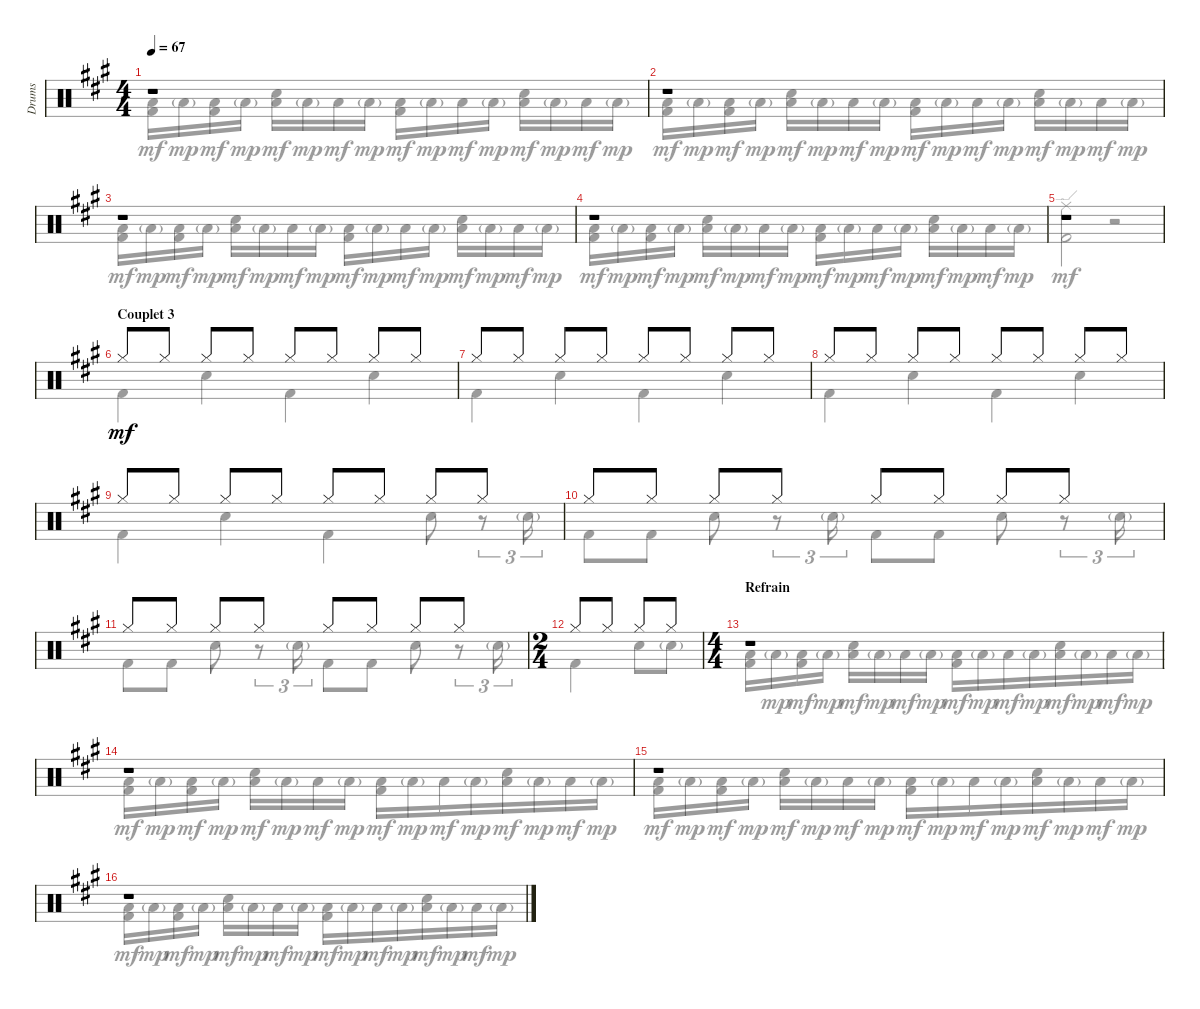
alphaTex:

\bracketExtendMode groupsimilarinstruments
\otherSystemsTrackNameOrientation horizontal
\track ("Drumkit" "Drums") {instrument percussion}
\staff {score}
\articulation defaults
\voice
\ts (4 4)
\tempo 67
\clef neutral
\scale
0.263889
\ks a
r.1{dy mf} |
\scale
0.263889 r.1 |
\scale
0.333333 r.1 |
\scale
0.333333 r.1 |
\scale
0.333333 r.1 |
\section ("" "Couplet 3")
\scale
0.333333 "Hi-Hat (closed)"{acc forcenatural}.8 "Hi-Hat (closed)"{acc forcenatural}.8 "Hi-Hat (closed)"{acc forcenatural}.8 "Hi-Hat (closed)"{acc forcenatural}.8 "Hi-Hat (closed)"{acc forcenatural}.8 "Hi-Hat (closed)"{acc forcenatural}.8 "Hi-Hat (closed)"{acc forcenatural}.8 "Hi-Hat (closed)"{acc forcenatural}.8 |
\scale
0.333333 "Hi-Hat (closed)"{acc forcenatural}.8 "Hi-Hat (closed)"{acc forcenatural}.8 "Hi-Hat (closed)"{acc forcenatural}.8 "Hi-Hat (closed)"{acc forcenatural}.8 "Hi-Hat (closed)"{acc forcenatural}.8 "Hi-Hat (closed)"{acc forcenatural}.8 "Hi-Hat (closed)"{acc forcenatural}.8 "Hi-Hat (closed)"{acc forcenatural}.8 |
\scale
0.333333 "Hi-Hat (closed)"{acc forcenatural}.8 "Hi-Hat (closed)"{acc forcenatural}.8 "Hi-Hat (closed)"{acc forcenatural}.8 "Hi-Hat (closed)"{acc forcenatural}.8 "Hi-Hat (closed)"{acc forcenatural}.8 "Hi-Hat (closed)"{acc forcenatural}.8 "Hi-Hat (closed)"{acc forcenatural}.8 "Hi-Hat (closed)"{acc forcenatural}.8 |
\scale
0.333333 "Hi-Hat (closed)"{acc forcenatural}.8 "Hi-Hat (closed)"{acc forcenatural}.8 "Hi-Hat (closed)"{acc forcenatural}.8 "Hi-Hat (closed)"{acc forcenatural}.8 "Hi-Hat (closed)"{acc forcenatural}.8 "Hi-Hat (closed)"{acc forcenatural}.8 "Hi-Hat (closed)"{acc forcenatural}.8 "Hi-Hat (closed)"{acc forcenatural}.8 |
\scale
0.333333 "Hi-Hat (closed)"{acc forcenatural}.8 "Hi-Hat (closed)"{acc forcenatural}.8 "Hi-Hat (closed)"{acc forcenatural}.8 "Hi-Hat (closed)"{acc forcenatural}.8 "Hi-Hat (closed)"{acc forcenatural}.8 "Hi-Hat (closed)"{acc forcenatural}.8 "Hi-Hat (closed)"{acc forcenatural}.8 "Hi-Hat (closed)"{acc forcenatural}.8 |
\scale
0.333333 "Hi-Hat (closed)"{acc forcenatural}.8 "Hi-Hat (closed)"{acc forcenatural}.8 "Hi-Hat (closed)"{acc forcenatural}.8 "Hi-Hat (closed)"{acc forcenatural}.8 "Hi-Hat (closed)"{acc forcenatural}.8 "Hi-Hat (closed)"{acc forcenatural}.8 "Hi-Hat (closed)"{acc forcenatural}.8 "Hi-Hat (closed)"{acc forcenatural}.8 |
\ts (2 4)
\beaming (8 2 2)
\scale
0.390805 "Hi-Hat (closed)"{acc forcenatural}.8 "Hi-Hat (closed)"{acc forcenatural}.8 "Hi-Hat (closed)"{acc forcenatural}.8 "Hi-Hat (closed)"{acc forcenatural}.8 |
\ts (4 4)
\beaming (8 2 2 4)
\section ("" "Refrain")
\scale
0.390805 r.1 |
\scale
0.218391 r.1 |
\scale
0.333333 r.1 |
\scale
0.333333 r.1
\voice
\clef neutral
\ottava regular
\simile none
\scale
0.263889
\ks a
("Kick (hit) 2"{acc forcenatural} "Low Tom (hit)"{acc forcenatural}).16{dy mf} "Low Tom (hit)"{g acc forcenatural}.16{dy mp} ("Kick (hit) 2"{acc forcenatural} "Low Tom (hit)"{acc forcenatural}).16{dy mf} "Low Tom (hit)"{g acc forcenatural}.16{dy mp} ("Low Tom (hit)"{acc forcenatural} "Snare (hit) 2"{acc forcenatural}).16{dy mf} "Low Tom (hit)"{g acc forcenatural}.16{dy mp} "Low Tom (hit)"{acc forcenatural}.16{dy mf} "Low Tom (hit)"{g acc forcenatural}.16{dy mp} ("Kick (hit) 2"{acc forcenatural} "Low Tom (hit)"{acc forcenatural}).16{dy mf} "Low Tom (hit)"{g acc forcenatural}.16{dy mp} "Low Tom (hit)"{acc forcenatural}.16{dy mf} "Low Tom (hit)"{g acc forcenatural}.16{dy mp} ("Low Tom (hit)"{acc forcenatural} "Snare (hit) 2"{acc forcenatural}).16{dy mf} "Low Tom (hit)"{g acc forcenatural}.16{dy mp} "Low Tom (hit)"{acc forcenatural}.16{dy mf} "Low Tom (hit)"{g acc forcenatural}.16{dy mp} |
\scale
0.263889 ("Kick (hit) 2"{acc forcenatural} "Low Tom (hit)"{acc forcenatural}).16{dy mf} "Low Tom (hit)"{g acc forcenatural}.16{dy mp} ("Kick (hit) 2"{acc forcenatural} "Low Tom (hit)"{acc forcenatural}).16{dy mf} "Low Tom (hit)"{g acc forcenatural}.16{dy mp} ("Low Tom (hit)"{acc forcenatural} "Snare (hit) 2"{acc forcenatural}).16{dy mf} "Low Tom (hit)"{g acc forcenatural}.16{dy mp} "Low Tom (hit)"{acc forcenatural}.16{dy mf} "Low Tom (hit)"{g acc forcenatural}.16{dy mp} ("Kick (hit) 2"{acc forcenatural} "Low Tom (hit)"{acc forcenatural}).16{dy mf} "Low Tom (hit)"{g acc forcenatural}.16{dy mp} "Low Tom (hit)"{acc forcenatural}.16{dy mf} "Low Tom (hit)"{g acc forcenatural}.16{dy mp} ("Low Tom (hit)"{acc forcenatural} "Snare (hit) 2"{acc forcenatural}).16{dy mf} "Low Tom (hit)"{g acc forcenatural}.16{dy mp} "Low Tom (hit)"{acc forcenatural}.16{dy mf} "Low Tom (hit)"{g acc forcenatural}.16{dy mp} |
\scale
0.333333 ("Kick (hit) 2"{acc forcenatural} "Low Tom (hit)"{acc forcenatural}).16{dy mf} "Low Tom (hit)"{g acc forcenatural}.16{dy mp} ("Kick (hit) 2"{acc forcenatural} "Low Tom (hit)"{acc forcenatural}).16{dy mf} "Low Tom (hit)"{g acc forcenatural}.16{dy mp} ("Low Tom (hit)"{acc forcenatural} "Snare (hit) 2"{acc forcenatural}).16{dy mf} "Low Tom (hit)"{g acc forcenatural}.16{dy mp} "Low Tom (hit)"{acc forcenatural}.16{dy mf} "Low Tom (hit)"{g acc forcenatural}.16{dy mp} ("Kick (hit) 2"{acc forcenatural} "Low Tom (hit)"{acc forcenatural}).16{dy mf} "Low Tom (hit)"{g acc forcenatural}.16{dy mp} "Low Tom (hit)"{acc forcenatural}.16{dy mf} "Low Tom (hit)"{g acc forcenatural}.16{dy mp} ("Low Tom (hit)"{acc forcenatural} "Snare (hit) 2"{acc forcenatural}).16{dy mf} "Low Tom (hit)"{g acc forcenatural}.16{dy mp} "Low Tom (hit)"{acc forcenatural}.16{dy mf} "Low Tom (hit)"{g acc forcenatural}.16{dy mp} |
\scale
0.333333 ("Kick (hit) 2"{acc forcenatural} "Low Tom (hit)"{acc forcenatural}).16{dy mf} "Low Tom (hit)"{g acc forcenatural}.16{dy mp} ("Kick (hit) 2"{acc forcenatural} "Low Tom (hit)"{acc forcenatural}).16{dy mf} "Low Tom (hit)"{g acc forcenatural}.16{dy mp} ("Low Tom (hit)"{acc forcenatural} "Snare (hit) 2"{acc forcenatural}).16{dy mf} "Low Tom (hit)"{g acc forcenatural}.16{dy mp} "Low Tom (hit)"{acc forcenatural}.16{dy mf} "Low Tom (hit)"{g acc forcenatural}.16{dy mp} ("Kick (hit) 2"{acc forcenatural} "Low Tom (hit)"{acc forcenatural}).16{dy mf} "Low Tom (hit)"{g acc forcenatural}.16{dy mp} "Low Tom (hit)"{acc forcenatural}.16{dy mf} "Low Tom (hit)"{g acc forcenatural}.16{dy mp} ("Low Tom (hit)"{acc forcenatural} "Snare (hit) 2"{acc forcenatural}).16{dy mf} "Low Tom (hit)"{g acc forcenatural}.16{dy mp} "Low Tom (hit)"{acc forcenatural}.16{dy mf} "Low Tom (hit)"{g acc forcenatural}.16{dy mp} |
\scale
0.333333 ("Kick (hit) 2"{acc forcenatural} "Ride (edge)"{acc forcenatural}).2{dy mf} r.2 |
\scale
0.333333 "Kick (hit) 2"{acc forcenatural}.4 "Snare (hit) 2"{acc forcenatural}.4 "Kick (hit) 2"{acc forcenatural}.4 "Snare (hit) 2"{acc forcenatural}.4 |
\scale
0.333333 "Kick (hit) 2"{acc forcenatural}.4 "Snare (hit) 2"{acc forcenatural}.4 "Kick (hit) 2"{acc forcenatural}.4 "Snare (hit) 2"{acc forcenatural}.4 |
\scale
0.333333 "Kick (hit) 2"{acc forcenatural}.4 "Snare (hit) 2"{acc forcenatural}.4 "Kick (hit) 2"{acc forcenatural}.4 "Snare (hit) 2"{acc forcenatural}.4 |
\scale
0.333333 "Kick (hit) 2"{acc forcenatural}.4 "Snare (hit) 2"{acc forcenatural}.4 "Kick (hit) 2"{acc forcenatural}.4 "Snare (hit) 2"{acc forcenatural}.8 r.8{tu (3 2)} "Snare (hit) 2"{g acc forcenatural}.16{tu (3 2)} |
\scale
0.333333 "Kick (hit) 2"{acc forcenatural}.8 "Kick (hit) 2"{acc forcenatural}.8 "Snare (hit) 2"{acc forcenatural}.8 r.8{tu (3 2)} "Snare (hit) 2"{g acc forcenatural}.16{tu (3 2)} "Kick (hit) 2"{acc forcenatural}.8 "Kick (hit) 2"{acc forcenatural}.8 "Snare (hit) 2"{acc forcenatural}.8 r.8{tu (3 2)} "Snare (hit) 2"{g acc forcenatural}.16{tu (3 2)} |
\scale
0.333333 "Kick (hit) 2"{acc forcenatural}.8 "Kick (hit) 2"{acc forcenatural}.8 "Snare (hit) 2"{acc forcenatural}.8 r.8{tu (3 2)} "Snare (hit) 2"{g acc forcenatural}.16{tu (3 2)} "Kick (hit) 2"{acc forcenatural}.8 "Kick (hit) 2"{acc forcenatural}.8 "Snare (hit) 2"{acc forcenatural}.8 r.8{tu (3 2)} "Snare (hit) 2"{g acc forcenatural}.16{tu (3 2)} |
\scale
0.390805 "Kick (hit) 2"{acc forcenatural}.4 "Snare (hit) 2"{acc forcenatural}.8 "Snare (hit) 2"{g acc forcenatural}.8 |
\scale
0.390805 ("Kick (hit) 2"{acc forcenatural} "Low Tom (hit)"{acc forcenatural}).16 "Low Tom (hit)"{g acc forcenatural}.16{dy mp} ("Kick (hit) 2"{acc forcenatural} "Low Tom (hit)"{acc forcenatural}).16{dy mf} "Low Tom (hit)"{g acc forcenatural}.16{dy mp} ("Low Tom (hit)"{acc forcenatural} "Snare (hit) 2"{acc forcenatural}).16{dy mf} "Low Tom (hit)"{g acc forcenatural}.16{dy mp} "Low Tom (hit)"{acc forcenatural}.16{dy mf} "Low Tom (hit)"{g acc forcenatural}.16{dy mp} ("Kick (hit) 2"{acc forcenatural} "Low Tom (hit)"{acc forcenatural}).16{dy mf} "Low Tom (hit)"{g acc forcenatural}.16{dy mp} "Low Tom (hit)"{acc forcenatural}.16{dy mf} "Low Tom (hit)"{g acc forcenatural}.16{dy mp} ("Low Tom (hit)"{acc forcenatural} "Snare (hit) 2"{acc forcenatural}).16{dy mf} "Low Tom (hit)"{g acc forcenatural}.16{dy mp} "Low Tom (hit)"{acc forcenatural}.16{dy mf} "Low Tom (hit)"{g acc forcenatural}.16{dy mp} |
\scale
0.218391 ("Kick (hit) 2"{acc forcenatural} "Low Tom (hit)"{acc forcenatural}).16{dy mf} "Low Tom (hit)"{g acc forcenatural}.16{dy mp} ("Kick (hit) 2"{acc forcenatural} "Low Tom (hit)"{acc forcenatural}).16{dy mf} "Low Tom (hit)"{g acc forcenatural}.16{dy mp} ("Low Tom (hit)"{acc forcenatural} "Snare (hit) 2"{acc forcenatural}).16{dy mf} "Low Tom (hit)"{g acc forcenatural}.16{dy mp} "Low Tom (hit)"{acc forcenatural}.16{dy mf} "Low Tom (hit)"{g acc forcenatural}.16{dy mp} ("Kick (hit) 2"{acc forcenatural} "Low Tom (hit)"{acc forcenatural}).16{dy mf} "Low Tom (hit)"{g acc forcenatural}.16{dy mp} "Low Tom (hit)"{acc forcenatural}.16{dy mf} "Low Tom (hit)"{g acc forcenatural}.16{dy mp} ("Low Tom (hit)"{acc forcenatural} "Snare (hit) 2"{acc forcenatural}).16{dy mf} "Low Tom (hit)"{g acc forcenatural}.16{dy mp} "Low Tom (hit)"{acc forcenatural}.16{dy mf} "Low Tom (hit)"{g acc forcenatural}.16{dy mp} |
\scale
0.333333 ("Kick (hit) 2"{acc forcenatural} "Low Tom (hit)"{acc forcenatural}).16{dy mf} "Low Tom (hit)"{g acc forcenatural}.16{dy mp} ("Kick (hit) 2"{acc forcenatural} "Low Tom (hit)"{acc forcenatural}).16{dy mf} "Low Tom (hit)"{g acc forcenatural}.16{dy mp} ("Low Tom (hit)"{acc forcenatural} "Snare (hit) 2"{acc forcenatural}).16{dy mf} "Low Tom (hit)"{g acc forcenatural}.16{dy mp} "Low Tom (hit)"{acc forcenatural}.16{dy mf} "Low Tom (hit)"{g acc forcenatural}.16{dy mp} ("Kick (hit) 2"{acc forcenatural} "Low Tom (hit)"{acc forcenatural}).16{dy mf} "Low Tom (hit)"{g acc forcenatural}.16{dy mp} "Low Tom (hit)"{acc forcenatural}.16{dy mf} "Low Tom (hit)"{g acc forcenatural}.16{dy mp} ("Low Tom (hit)"{acc forcenatural} "Snare (hit) 2"{acc forcenatural}).16{dy mf} "Low Tom (hit)"{g acc forcenatural}.16{dy mp} "Low Tom (hit)"{acc forcenatural}.16{dy mf} "Low Tom (hit)"{g acc forcenatural}.16{dy mp} |
\scale
0.333333 ("Kick (hit) 2"{acc forcenatural} "Low Tom (hit)"{acc forcenatural}).16{dy mf} "Low Tom (hit)"{g acc forcenatural}.16{dy mp} ("Kick (hit) 2"{acc forcenatural} "Low Tom (hit)"{acc forcenatural}).16{dy mf} "Low Tom (hit)"{g acc forcenatural}.16{dy mp} ("Low Tom (hit)"{acc forcenatural} "Snare (hit) 2"{acc forcenatural}).16{dy mf} "Low Tom (hit)"{g acc forcenatural}.16{dy mp} "Low Tom (hit)"{acc forcenatural}.16{dy mf} "Low Tom (hit)"{g acc forcenatural}.16{dy mp} ("Kick (hit) 2"{acc forcenatural} "Low Tom (hit)"{acc forcenatural}).16{dy mf} "Low Tom (hit)"{g acc forcenatural}.16{dy mp} "Low Tom (hit)"{acc forcenatural}.16{dy mf} "Low Tom (hit)"{g acc forcenatural}.16{dy mp} ("Low Tom (hit)"{acc forcenatural} "Snare (hit) 2"{acc forcenatural}).16{dy mf} "Low Tom (hit)"{g acc forcenatural}.16{dy mp} "Low Tom (hit)"{acc forcenatural}.16{dy mf} "Low Tom (hit)"{g acc forcenatural}.16{dy mp}
